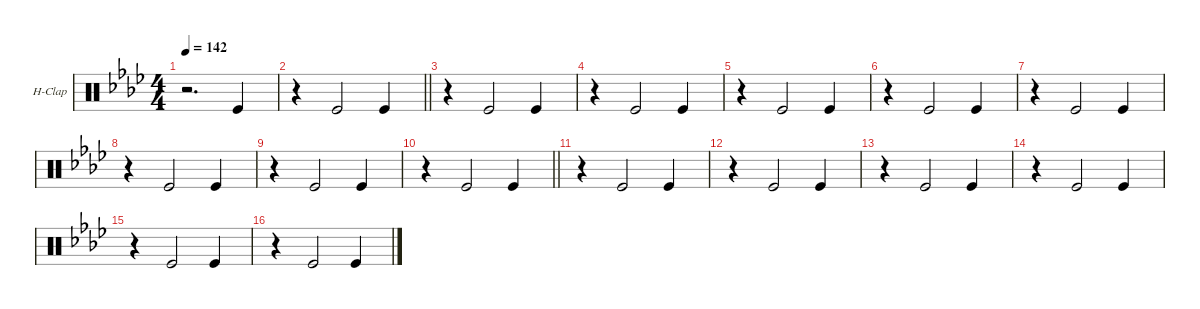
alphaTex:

\defaultSystemsLayout 4
\hideDynamics
\bracketExtendMode groupsimilarinstruments
\firstSystemTrackNameOrientation horizontal
\otherSystemsTrackNameOrientation horizontal
\track ("Hand Clap" "H-Clap") {multiBarRest instrument percussion}
\staff {score}
\articulation defaults
\ts (4 4)
\tempo 142
\clef neutral
\ks ab
r.2{d dy fff} "Kick (hit)".4 |
\barLineRight lightlight
r.4 "Kick (hit)".2 "Kick (hit)".4 |
r.4 "Kick (hit)".2 "Kick (hit)".4 |
r.4 "Kick (hit)".2 "Kick (hit)".4 |
r.4 "Kick (hit)".2 "Kick (hit)".4 |
r.4 "Kick (hit)".2 "Kick (hit)".4 |
r.4 "Kick (hit)".2 "Kick (hit)".4 |
r.4 "Kick (hit)".2 "Kick (hit)".4 |
r.4 "Kick (hit)".2 "Kick (hit)".4 |
\barLineRight lightlight
r.4 "Kick (hit)".2 "Kick (hit)".4 |
r.4 "Kick (hit)".2 "Kick (hit)".4 |
r.4 "Kick (hit)".2 "Kick (hit)".4 |
r.4 "Kick (hit)".2 "Kick (hit)".4 |
r.4 "Kick (hit)".2 "Kick (hit)".4 |
r.4 "Kick (hit)".2 "Kick (hit)".4 |
r.4 "Kick (hit)".2 "Kick (hit)".4
